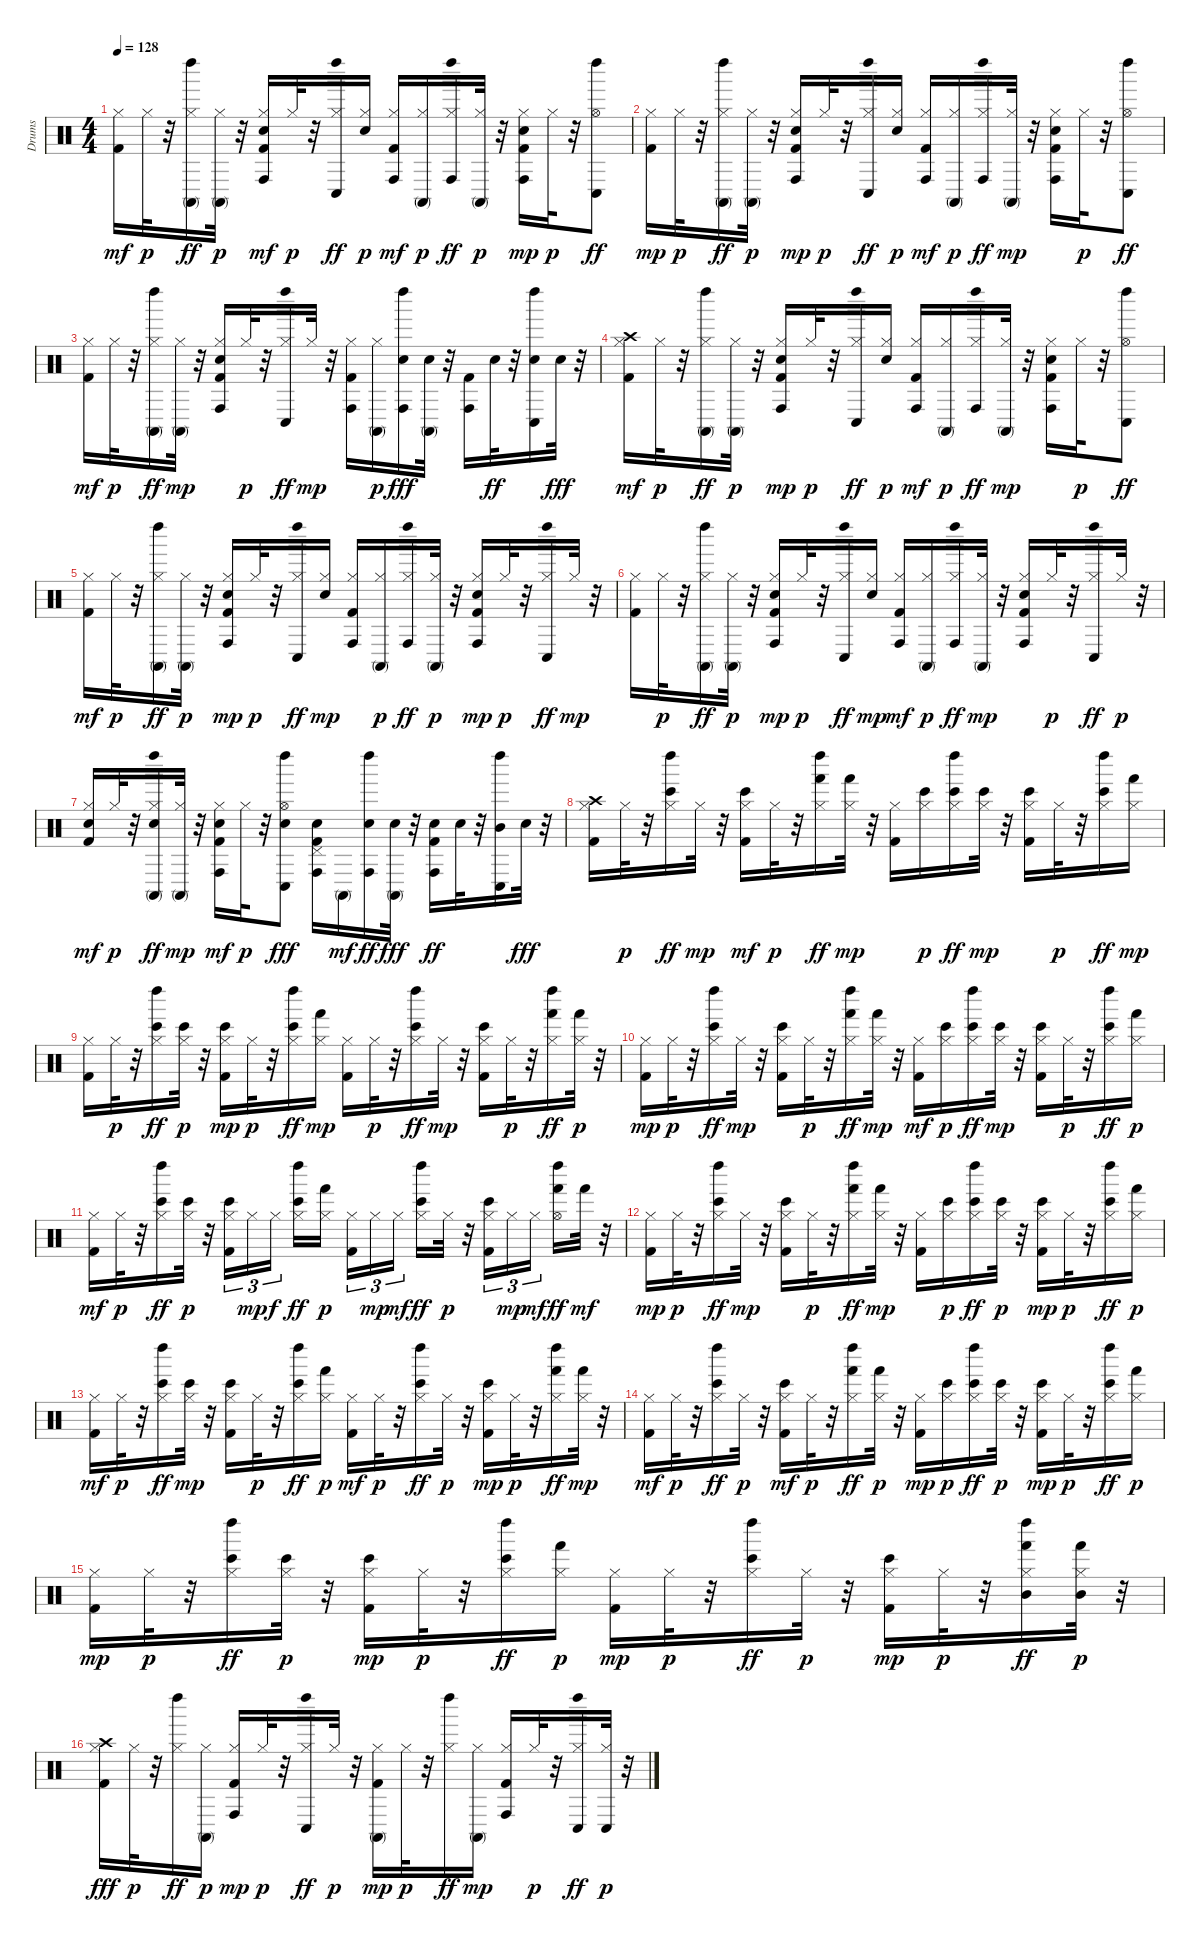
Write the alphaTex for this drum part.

\track ("Drums" "Drums") {instrument percussion}
\staff {score}
\articulation defaults
\ts (4 4)
\tempo 128
\clef neutral
\ks c
("Kick (hit) 2" "Hi-Hat (closed)").16{dy mf} "Hi-Hat (closed)".32{dy p} r.32 ("Conga high (mute)" "Left Maraca (hit)" "Hi-Hat (closed)").16{dy ff} ("Conga high (mute)" "Hi-Hat (closed)").32{dy p} r.32 ("Kick (hit) 2" "Conga high (hit)" "Electric Snare (hit)" "Hi-Hat (closed)").16{dy mf} "Hi-Hat (closed)".32{dy p} r.32 ("Conga low (hit)" "Left Maraca (hit)" "Hi-Hat (closed)").16{dy ff} ("Electric Snare (hit)" "Hi-Hat (closed)").16{dy p} ("Kick (hit) 2" "Conga high (hit)" "Hi-Hat (closed)").16{dy mf} ("Conga high (mute)" "Hi-Hat (closed)").16{dy p} ("Conga high (hit)" "Left Maraca (hit)" "Hi-Hat (closed)").16{dy ff} ("Conga high (mute)" "Hi-Hat (closed)").32{dy p} r.32 ("Kick (hit) 2" "Conga high (hit)" "Electric Snare (hit)" "Hi-Hat (closed)").16{dy mp} "Hi-Hat (closed)".32{dy p} r.32 ("Conga low (hit)" "Left Maraca (hit)" "Hi-Hat (open)").8{dy ff} |
("Kick (hit) 2" "Hi-Hat (closed)").16{dy mp} "Hi-Hat (closed)".32{dy p} r.32 ("Conga high (mute)" "Left Maraca (hit)" "Hi-Hat (closed)").16{dy ff} ("Conga high (mute)" "Hi-Hat (closed)").32{dy p} r.32 ("Kick (hit) 2" "Conga high (hit)" "Electric Snare (hit)" "Hi-Hat (closed)").16{dy mp} "Hi-Hat (closed)".32{dy p} r.32 ("Conga low (hit)" "Left Maraca (hit)" "Hi-Hat (closed)").16{dy ff} ("Electric Snare (hit)" "Hi-Hat (closed)").16{dy p} ("Kick (hit) 2" "Conga high (hit)" "Hi-Hat (closed)").16{dy mf} ("Conga high (mute)" "Hi-Hat (closed)").16{dy p} ("Conga high (hit)" "Left Maraca (hit)" "Hi-Hat (closed)").16{dy ff} ("Conga high (mute)" "Hi-Hat (closed)").32{dy mp} r.32 ("Kick (hit) 2" "Conga high (hit)" "Electric Snare (hit)" "Hi-Hat (closed)").16 "Hi-Hat (closed)".32{dy p} r.32 ("Conga low (hit)" "Left Maraca (hit)" "Hi-Hat (open)").8{dy ff} |
("Kick (hit) 2" "Hi-Hat (closed)").16{dy mf} "Hi-Hat (closed)".32{dy p} r.32 ("Conga high (mute)" "Left Maraca (hit)" "Hi-Hat (closed)").16{dy ff} ("Conga high (mute)" "Hi-Hat (closed)").32{dy mp} r.32 ("Kick (hit) 2" "Conga high (hit)" "Electric Snare (hit)" "Hi-Hat (closed)").16 "Hi-Hat (closed)".32{dy p} r.32 ("Conga low (hit)" "Left Maraca (hit)" "Hi-Hat (closed)").16{dy ff} "Hi-Hat (closed)".32{dy mp} r.32 ("Kick (hit) 2" "Conga high (hit)" "Hi-Hat (closed)").16 ("Conga high (mute)" "Hi-Hat (closed)").16{dy p} ("Conga high (hit)" "Left Maraca (hit)" "Electric Snare (hit)").16{dy fff} ("Conga high (mute)" "Electric Snare (hit)").32 r.32 ("Kick (hit) 2" "Conga high (hit)").16 "Electric Snare (hit)".32{dy ff} r.32 ("Conga low (hit)" "Left Maraca (hit)" "Electric Snare (hit)").16 "Electric Snare (hit)".32{dy fff} r.32 |
("Kick (hit) 2" "Hi-Hat (closed)" "Crash high (hit)").16{dy mf} "Hi-Hat (closed)".32{dy p} r.32 ("Conga high (mute)" "Left Maraca (hit)" "Hi-Hat (closed)").16{dy ff} ("Conga high (mute)" "Hi-Hat (closed)").32{dy p} r.32 ("Kick (hit) 2" "Conga high (hit)" "Electric Snare (hit)" "Hi-Hat (closed)").16{dy mp} "Hi-Hat (closed)".32{dy p} r.32 ("Conga low (hit)" "Left Maraca (hit)" "Hi-Hat (closed)").16{dy ff} ("Electric Snare (hit)" "Hi-Hat (closed)").16{dy p} ("Kick (hit) 2" "Conga high (hit)" "Hi-Hat (closed)").16{dy mf} ("Conga high (mute)" "Hi-Hat (closed)").16{dy p} ("Conga high (hit)" "Left Maraca (hit)" "Hi-Hat (closed)").16{dy ff} ("Conga high (mute)" "Hi-Hat (closed)").32{dy mp} r.32 ("Kick (hit) 2" "Conga high (hit)" "Electric Snare (hit)" "Hi-Hat (closed)").16 "Hi-Hat (closed)".32{dy p} r.32 ("Conga low (hit)" "Left Maraca (hit)" "Hi-Hat (open)").8{dy ff} |
("Kick (hit) 2" "Hi-Hat (closed)").16{dy mf} "Hi-Hat (closed)".32{dy p} r.32 ("Conga high (mute)" "Left Maraca (hit)" "Hi-Hat (closed)").16{dy ff} ("Conga high (mute)" "Hi-Hat (closed)").32{dy p} r.32 ("Kick (hit) 2" "Conga high (hit)" "Electric Snare (hit)" "Hi-Hat (closed)").16{dy mp} "Hi-Hat (closed)".32{dy p} r.32 ("Conga low (hit)" "Left Maraca (hit)" "Hi-Hat (closed)").16{dy ff} ("Electric Snare (hit)" "Hi-Hat (closed)").16{dy mp} ("Kick (hit) 2" "Conga high (hit)" "Hi-Hat (closed)").16 ("Conga high (mute)" "Hi-Hat (closed)").16{dy p} ("Conga high (hit)" "Left Maraca (hit)" "Hi-Hat (closed)").16{dy ff} ("Conga high (mute)" "Hi-Hat (closed)").32{dy p} r.32 ("Kick (hit) 2" "Conga high (hit)" "Electric Snare (hit)" "Hi-Hat (closed)").16{dy mp} "Hi-Hat (closed)".32{dy p} r.32 ("Conga low (hit)" "Left Maraca (hit)" "Hi-Hat (closed)").16{dy ff} "Hi-Hat (closed)".32{dy mp} r.32 |
("Kick (hit) 2" "Hi-Hat (closed)").16 "Hi-Hat (closed)".32{dy p} r.32 ("Conga high (mute)" "Left Maraca (hit)" "Hi-Hat (closed)").16{dy ff} ("Conga high (mute)" "Hi-Hat (closed)").32{dy p} r.32 ("Kick (hit) 2" "Conga high (hit)" "Electric Snare (hit)" "Hi-Hat (closed)").16{dy mp} "Hi-Hat (closed)".32{dy p} r.32 ("Conga low (hit)" "Left Maraca (hit)" "Hi-Hat (closed)").16{dy ff} ("Electric Snare (hit)" "Hi-Hat (closed)").16{dy mp} ("Kick (hit) 2" "Conga high (hit)" "Hi-Hat (closed)").16{dy mf} ("Conga high (mute)" "Hi-Hat (closed)").16{dy p} ("Conga high (hit)" "Left Maraca (hit)" "Hi-Hat (closed)").16{dy ff} ("Conga high (mute)" "Hi-Hat (closed)").32{dy mp} r.32 ("Kick (hit) 2" "Conga high (hit)" "Electric Snare (hit)" "Hi-Hat (closed)").16 "Hi-Hat (closed)".32{dy p} r.32 ("Conga low (hit)" "Left Maraca (hit)" "Hi-Hat (closed)").16{dy ff} "Hi-Hat (closed)".32{dy p} r.32 |
("Kick (hit) 2" "Electric Snare (hit)" "Hi-Hat (closed)").16{dy mf} "Hi-Hat (closed)".32{dy p} r.32 ("Conga high (mute)" "Left Maraca (hit)" "Electric Snare (hit)" "Hi-Hat (closed)").16{dy ff} ("Conga high (mute)" "Hi-Hat (closed)").32{dy mp} r.32 ("Kick (hit) 2" "Conga high (hit)" "Electric Snare (hit)" "Hi-Hat (closed)").16{dy mf} "Hi-Hat (closed)".32{dy p} r.32 ("Conga low (hit)" "Left Maraca (hit)" "Electric Snare (hit)" "Hi-Hat (open)").8{dy fff} ("Kick (hit) 2" "Conga high (hit)" "Pedal Hi-Hat (hit)" "Electric Snare (hit)").16 "Conga high (mute)".16{dy mf} ("Conga high (hit)" "Left Maraca (hit)" "Electric Snare (hit)").16{dy ff} ("Conga high (mute)" "Electric Snare (hit)").32{dy fff} r.32 ("Kick (hit) 2" "Conga high (hit)" "Electric Snare (hit)").16{dy ff} "Electric Snare (hit)".32 r.32 ("Conga low (hit)" "Left Maraca (hit)" "Mid Tom (hit)").16 "Electric Snare (hit)".32{dy fff} r.32 |
("Kick (hit) 2" "Hi-Hat (closed)" "Crash high (hit)").16 "Hi-Hat (closed)".32{dy p} r.32 ("Bongo High (hit)" "Left Maraca (hit)" "Hi-Hat (closed)").16{dy ff} "Hi-Hat (closed)".32{dy mp} r.32 ("Kick (hit) 2" "Bongo High (hit)" "Hi-Hat (closed)").16{dy mf} "Hi-Hat (closed)".32{dy p} r.32 ("Hand (hit)" "Left Maraca (hit)" "Hi-Hat (closed)").16{dy ff} ("Hand (hit)" "Hi-Hat (closed)").32{dy mp} r.32 ("Kick (hit) 2" "Hi-Hat (closed)").16 ("Bongo High (hit)" "Hi-Hat (closed)").16{dy p} ("Bongo High (hit)" "Left Maraca (hit)" "Hi-Hat (closed)").16{dy ff} ("Bongo High (hit)" "Hi-Hat (closed)").32{dy mp} r.32 ("Kick (hit) 2" "Bongo High (hit)" "Hi-Hat (closed)").16 "Hi-Hat (closed)".32{dy p} r.32 ("Bongo High (hit)" "Left Maraca (hit)" "Hi-Hat (closed)").16{dy ff} ("Hand (hit)" "Hi-Hat (closed)").16{dy mp} |
("Kick (hit) 2" "Hi-Hat (closed)").16 "Hi-Hat (closed)".32{dy p} r.32 ("Bongo High (hit)" "Left Maraca (hit)" "Hi-Hat (closed)").16{dy ff} ("Bongo High (hit)" "Hi-Hat (closed)").32{dy p} r.32 ("Kick (hit) 2" "Bongo High (hit)" "Hi-Hat (closed)").16{dy mp} "Hi-Hat (closed)".32{dy p} r.32 ("Bongo High (hit)" "Left Maraca (hit)" "Hi-Hat (closed)").16{dy ff} ("Hand (hit)" "Hi-Hat (closed)").16{dy mp} ("Kick (hit) 2" "Hi-Hat (closed)").16 "Hi-Hat (closed)".32{dy p} r.32 ("Bongo High (hit)" "Left Maraca (hit)" "Hi-Hat (closed)").16{dy ff} "Hi-Hat (closed)".32{dy mp} r.32 ("Kick (hit) 2" "Bongo High (hit)" "Hi-Hat (closed)").16 "Hi-Hat (closed)".32{dy p} r.32 ("Hand (hit)" "Left Maraca (hit)" "Hi-Hat (closed)").16{dy ff} ("Hand (hit)" "Hi-Hat (closed)").32{dy p} r.32 |
("Kick (hit) 2" "Hi-Hat (closed)").16{dy mp} "Hi-Hat (closed)".32{dy p} r.32 ("Bongo High (hit)" "Left Maraca (hit)" "Hi-Hat (closed)").16{dy ff} "Hi-Hat (closed)".32{dy mp} r.32 ("Kick (hit) 2" "Bongo High (hit)" "Hi-Hat (closed)").16 "Hi-Hat (closed)".32{dy p} r.32 ("Hand (hit)" "Left Maraca (hit)" "Hi-Hat (closed)").16{dy ff} ("Hand (hit)" "Hi-Hat (closed)").32{dy mp} r.32 ("Kick (hit) 2" "Hi-Hat (closed)").16{dy mf} ("Bongo High (hit)" "Hi-Hat (closed)").16{dy p} ("Bongo High (hit)" "Left Maraca (hit)" "Hi-Hat (closed)").16{dy ff} ("Bongo High (hit)" "Hi-Hat (closed)").32{dy mp} r.32 ("Kick (hit) 2" "Bongo High (hit)" "Hi-Hat (closed)").16 "Hi-Hat (closed)".32{dy p} r.32 ("Bongo High (hit)" "Left Maraca (hit)" "Hi-Hat (closed)").16{dy ff} ("Hand (hit)" "Hi-Hat (closed)").16{dy p} |
("Kick (hit) 2" "Hi-Hat (closed)").16{dy mf} "Hi-Hat (closed)".32{dy p} r.32 ("Bongo High (hit)" "Left Maraca (hit)" "Hi-Hat (closed)").16{dy ff} ("Bongo High (hit)" "Hi-Hat (closed)").32{dy p} r.32 ("Kick (hit) 2" "Bongo High (hit)" "Hi-Hat (closed)").16{tu (3 2)} "Hi-Hat (closed)".16{tu (3 2) dy mp} "Hi-Hat (closed)".16{tu (3 2) dy f beam splitsecondary} ("Bongo High (hit)" "Left Maraca (hit)" "Hi-Hat (closed)").16{dy ff} ("Hand (hit)" "Hi-Hat (closed)").16{dy p} ("Kick (hit) 2" "Hi-Hat (closed)").16{tu (3 2)} "Hi-Hat (closed)".16{tu (3 2) dy mp} "Hi-Hat (closed)".16{tu (3 2) dy mf beam splitsecondary} ("Bongo High (hit)" "Left Maraca (hit)" "Hi-Hat (closed)").16{dy ff} "Hi-Hat (closed)".32{dy p} r.32 ("Kick (hit) 2" "Bongo High (hit)" "Hi-Hat (closed)").16{tu (3 2)} "Hi-Hat (closed)".16{tu (3 2) dy mp} "Hi-Hat (closed)".16{tu (3 2) dy mf beam splitsecondary} ("Hand (hit)" "Left Maraca (hit)" "Hi-Hat (open)").16{dy ff} "Hand (hit)".32{dy mf} r.32 |
("Kick (hit) 2" "Hi-Hat (closed)").16{dy mp} "Hi-Hat (closed)".32{dy p} r.32 ("Bongo High (hit)" "Left Maraca (hit)" "Hi-Hat (closed)").16{dy ff} "Hi-Hat (closed)".32{dy mp} r.32 ("Kick (hit) 2" "Bongo High (hit)" "Hi-Hat (closed)").16 "Hi-Hat (closed)".32{dy p} r.32 ("Hand (hit)" "Left Maraca (hit)" "Hi-Hat (closed)").16{dy ff} ("Hand (hit)" "Hi-Hat (closed)").32{dy mp} r.32 ("Kick (hit) 2" "Hi-Hat (closed)").16 ("Bongo High (hit)" "Hi-Hat (closed)").16{dy p} ("Bongo High (hit)" "Left Maraca (hit)" "Hi-Hat (closed)").16{dy ff} ("Bongo High (hit)" "Hi-Hat (closed)").32{dy p} r.32 ("Kick (hit) 2" "Bongo High (hit)" "Hi-Hat (closed)").16{dy mp} "Hi-Hat (closed)".32{dy p} r.32 ("Bongo High (hit)" "Left Maraca (hit)" "Hi-Hat (closed)").16{dy ff} ("Hand (hit)" "Hi-Hat (closed)").16{dy p} |
("Kick (hit) 2" "Hi-Hat (closed)").16{dy mf} "Hi-Hat (closed)".32{dy p} r.32 ("Bongo High (hit)" "Left Maraca (hit)" "Hi-Hat (closed)").16{dy ff} ("Bongo High (hit)" "Hi-Hat (closed)").32{dy mp} r.32 ("Kick (hit) 2" "Bongo High (hit)" "Hi-Hat (closed)").16 "Hi-Hat (closed)".32{dy p} r.32 ("Bongo High (hit)" "Left Maraca (hit)" "Hi-Hat (closed)").16{dy ff} ("Hand (hit)" "Hi-Hat (closed)").16{dy p} ("Kick (hit) 2" "Hi-Hat (closed)").16{dy mf} "Hi-Hat (closed)".32{dy p} r.32 ("Bongo High (hit)" "Left Maraca (hit)" "Hi-Hat (closed)").16{dy ff} "Hi-Hat (closed)".32{dy p} r.32 ("Kick (hit) 2" "Bongo High (hit)" "Hi-Hat (closed)").16{dy mp} "Hi-Hat (closed)".32{dy p} r.32 ("Hand (hit)" "Left Maraca (hit)" "Hi-Hat (closed)").16{dy ff} ("Hand (hit)" "Hi-Hat (closed)").32{dy mp} r.32 |
("Kick (hit) 2" "Hi-Hat (closed)").16{dy mf} "Hi-Hat (closed)".32{dy p} r.32 ("Bongo High (hit)" "Left Maraca (hit)" "Hi-Hat (closed)").16{dy ff} "Hi-Hat (closed)".32{dy p} r.32 ("Kick (hit) 2" "Bongo High (hit)" "Hi-Hat (closed)").16{dy mf} "Hi-Hat (closed)".32{dy p} r.32 ("Hand (hit)" "Left Maraca (hit)" "Hi-Hat (closed)").16{dy ff} ("Hand (hit)" "Hi-Hat (closed)").32{dy p} r.32 ("Kick (hit) 2" "Hi-Hat (closed)").16{dy mp} ("Bongo High (hit)" "Hi-Hat (closed)").16{dy p} ("Bongo High (hit)" "Left Maraca (hit)" "Hi-Hat (closed)").16{dy ff} ("Bongo High (hit)" "Hi-Hat (closed)").32{dy p} r.32 ("Kick (hit) 2" "Bongo High (hit)" "Hi-Hat (closed)").16{dy mp} "Hi-Hat (closed)".32{dy p} r.32 ("Bongo High (hit)" "Left Maraca (hit)" "Hi-Hat (closed)").16{dy ff} ("Hand (hit)" "Hi-Hat (closed)").16{dy p} |
("Kick (hit) 2" "Hi-Hat (closed)").16{dy mp} "Hi-Hat (closed)".32{dy p} r.32 ("Bongo High (hit)" "Left Maraca (hit)" "Hi-Hat (closed)").16{dy ff} ("Bongo High (hit)" "Hi-Hat (closed)").32{dy p} r.32 ("Kick (hit) 2" "Bongo High (hit)" "Hi-Hat (closed)").16{dy mp} "Hi-Hat (closed)".32{dy p} r.32 ("Bongo High (hit)" "Left Maraca (hit)" "Hi-Hat (closed)").16{dy ff} ("Hand (hit)" "Hi-Hat (closed)").16{dy p} ("Kick (hit) 2" "Hi-Hat (closed)").16{dy mp} "Hi-Hat (closed)".32{dy p} r.32 ("Bongo High (hit)" "Left Maraca (hit)" "Hi-Hat (closed)").16{dy ff} "Hi-Hat (closed)".32{dy p} r.32 ("Kick (hit) 2" "Bongo High (hit)" "Hi-Hat (closed)").16{dy mp} "Hi-Hat (closed)".32{dy p} r.32 ("Hand (hit)" "Left Maraca (hit)" "Mid Tom (hit)" "Hi-Hat (closed)").16{dy ff} ("Hand (hit)" "Mid Tom (hit)" "Hi-Hat (closed)").32{dy p} r.32 |
("Kick (hit) 2" "Hi-Hat (closed)" "Crash high (hit)").16{dy fff} "Hi-Hat (closed)".32{dy p} r.32 ("Left Maraca (hit)" "Hi-Hat (closed)").16{dy ff} ("Conga high (mute)" "Hi-Hat (closed)").16{dy p} ("Kick (hit) 2" "Conga high (hit)" "Hi-Hat (closed)").16{dy mp} "Hi-Hat (closed)".32{dy p} r.32 ("Conga low (hit)" "Left Maraca (hit)" "Hi-Hat (closed)").16{dy ff} "Hi-Hat (closed)".32{dy p} r.32 ("Kick (hit) 2" "Conga high (mute)" "Hi-Hat (closed)").16{dy mp} "Hi-Hat (closed)".32{dy p} r.32 ("Left Maraca (hit)" "Hi-Hat (closed)").16{dy ff} ("Conga high (mute)" "Hi-Hat (closed)").16{dy mp} ("Kick (hit) 2" "Conga high (hit)" "Hi-Hat (closed)").16 "Hi-Hat (closed)".32{dy p} r.32 ("Conga low (hit)" "Left Maraca (hit)" "Hi-Hat (closed)").16{dy ff} ("Conga low (hit)" "Hi-Hat (closed)").32{dy p} r.32
